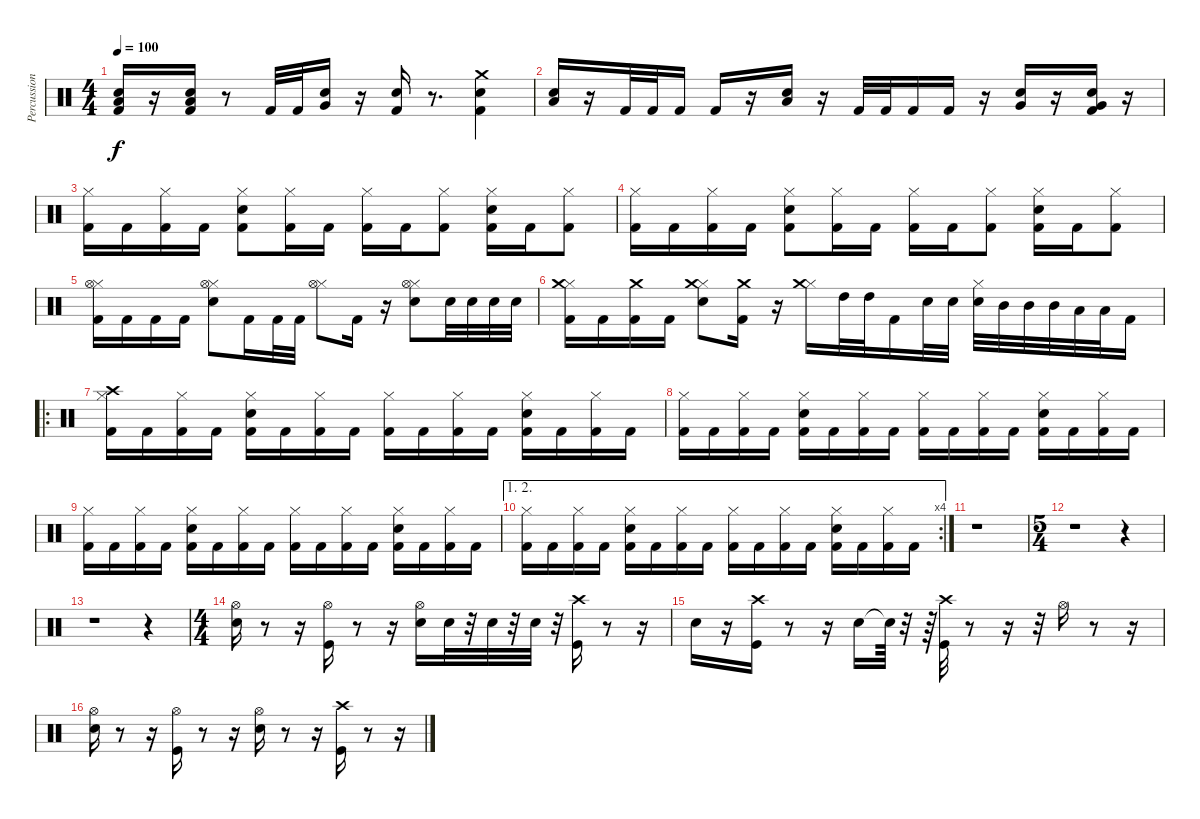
\track ("Percussion" "Percussion") {instrument percussion}
\staff {score}
\articulation defaults
\ts (4 4)
\tempo 100
\clef neutral
\ks c
("Kick (hit) 2" "Snare (hit) 2" "Low Floor Tom (hit)").16{dy f} r.16 ("Kick (hit) 2" "Snare (hit) 2" "Low Floor Tom (hit)").16 r.8 "Kick (hit) 2".32 "Kick (hit) 2".32 ("Snare (hit) 2" "Very Low Tom (hit)").16 r.16 ("Kick (hit) 2" "Snare (hit) 2").16 r.8{d} ("Kick (hit) 2" "Snare (hit) 2" "Crash medium (hit)").4 |
("Snare (hit) 2" "Low Floor Tom (hit)").16 r.16 "Kick (hit) 2".32 "Kick (hit) 2".32 "Kick (hit) 2".16 "Kick (hit) 2".16 r.16 ("Snare (hit) 2" "Low Floor Tom (hit)").16 r.16 "Kick (hit) 2".32 "Kick (hit) 2".32 "Kick (hit) 2".16 "Kick (hit) 2".16 r.16 ("Snare (hit) 2" "Very Low Tom (hit)").16 r.16 ("Kick (hit) 2" "Snare (hit) 2" "Very Low Tom (hit)").16 r.16 |
("Kick (hit) 2" "Hi-Hat (closed)").16 "Kick (hit) 2".16 ("Kick (hit) 2" "Hi-Hat (closed)").16 "Kick (hit) 2".16 ("Kick (hit) 2" "Snare (hit) 2" "Hi-Hat (closed)").8 ("Kick (hit) 2" "Hi-Hat (closed)").16 "Kick (hit) 2".16 ("Kick (hit) 2" "Hi-Hat (closed)").16 "Kick (hit) 2".16 ("Kick (hit) 2" "Hi-Hat (closed)").8 ("Kick (hit) 2" "Snare (hit) 2" "Hi-Hat (closed)").16 "Kick (hit) 2".16 ("Kick (hit) 2" "Hi-Hat (closed)").8 |
("Kick (hit) 2" "Hi-Hat (closed)").16 "Kick (hit) 2".16 ("Kick (hit) 2" "Hi-Hat (closed)").16 "Kick (hit) 2".16 ("Kick (hit) 2" "Snare (hit) 2" "Hi-Hat (closed)").8 ("Kick (hit) 2" "Hi-Hat (closed)").16 "Kick (hit) 2".16 ("Kick (hit) 2" "Hi-Hat (closed)").16 "Kick (hit) 2".16 ("Kick (hit) 2" "Hi-Hat (closed)").8 ("Kick (hit) 2" "Snare (hit) 2" "Hi-Hat (closed)").16 "Kick (hit) 2".16 ("Kick (hit) 2" "Hi-Hat (closed)").8 |
("Kick (hit) 2" "Hi-Hat (closed)" "Hi-Hat (open)").16 "Kick (hit) 2".16 "Kick (hit) 2".16 "Kick (hit) 2".16 ("Snare (hit) 2" "Hi-Hat (closed)" "Hi-Hat (open)").8 "Kick (hit) 2".16 "Kick (hit) 2".32 "Kick (hit) 2".32 ("Hi-Hat (closed)" "Hi-Hat (open)").8 "Kick (hit) 2".16 r.16 ("Snare (hit) 2" "Hi-Hat (closed)" "Hi-Hat (open)").8 "Snare (hit) 2".32 "Snare (hit) 2".32 "Snare (hit) 2".32 "Snare (hit) 2".32 |
("Kick (hit) 2" "Hi-Hat (closed)" "Crash medium (hit)").16 "Kick (hit) 2".16 ("Kick (hit) 2" "Crash medium (hit)").16 "Kick (hit) 2".16 ("Snare (hit) 2" "Hi-Hat (closed)" "Crash medium (hit)").8 ("Kick (hit) 2" "Crash medium (hit)").16 r.16 ("Hi-Hat (closed)" "Crash medium (hit)").16 "High Tom (hit)".32 "High Tom (hit)".32 "Kick (hit) 2".16 "Snare (hit) 2".32 "Snare (hit) 2".32 ("Snare (hit) 2" "Hi-Hat (closed)").32 "Mid Tom (hit)".32 "Mid Tom (hit)".32 "Mid Tom (hit)".32 "Low Tom (hit)".32 "Low Tom (hit)".32 "Kick (hit) 2".16 |
\ro
("Kick (hit) 2" "Hi-Hat (closed)" "Crash high (hit)").16 "Kick (hit) 2".16 ("Kick (hit) 2" "Hi-Hat (closed)").16 "Kick (hit) 2".16 ("Kick (hit) 2" "Snare (hit) 2" "Hi-Hat (closed)").16 "Kick (hit) 2".16 ("Kick (hit) 2" "Hi-Hat (closed)").16 "Kick (hit) 2".16 ("Kick (hit) 2" "Hi-Hat (closed)").16 "Kick (hit) 2".16 ("Kick (hit) 2" "Hi-Hat (closed)").16 "Kick (hit) 2".16 ("Kick (hit) 2" "Snare (hit) 2" "Hi-Hat (closed)").16 "Kick (hit) 2".16 ("Kick (hit) 2" "Hi-Hat (closed)").16 "Kick (hit) 2".16 |
("Kick (hit) 2" "Hi-Hat (closed)").16 "Kick (hit) 2".16 ("Kick (hit) 2" "Hi-Hat (closed)").16 "Kick (hit) 2".16 ("Kick (hit) 2" "Snare (hit) 2" "Hi-Hat (closed)").16 "Kick (hit) 2".16 ("Kick (hit) 2" "Hi-Hat (closed)").16 "Kick (hit) 2".16 ("Kick (hit) 2" "Hi-Hat (closed)").16 "Kick (hit) 2".16 ("Kick (hit) 2" "Hi-Hat (closed)").16 "Kick (hit) 2".16 ("Kick (hit) 2" "Snare (hit) 2" "Hi-Hat (closed)").16 "Kick (hit) 2".16 ("Kick (hit) 2" "Hi-Hat (closed)").16 "Kick (hit) 2".16 |
("Kick (hit) 2" "Hi-Hat (closed)").16 "Kick (hit) 2".16 ("Kick (hit) 2" "Hi-Hat (closed)").16 "Kick (hit) 2".16 ("Kick (hit) 2" "Snare (hit) 2" "Hi-Hat (closed)").16 "Kick (hit) 2".16 ("Kick (hit) 2" "Hi-Hat (closed)").16 "Kick (hit) 2".16 ("Kick (hit) 2" "Hi-Hat (closed)").16 "Kick (hit) 2".16 ("Kick (hit) 2" "Hi-Hat (closed)").16 "Kick (hit) 2".16 ("Kick (hit) 2" "Snare (hit) 2" "Hi-Hat (closed)").16 "Kick (hit) 2".16 ("Kick (hit) 2" "Hi-Hat (closed)").16 "Kick (hit) 2".16 |
\ae (1 2)
\rc 4
("Kick (hit) 2" "Hi-Hat (closed)").16 "Kick (hit) 2".16 ("Kick (hit) 2" "Hi-Hat (closed)").16 "Kick (hit) 2".16 ("Kick (hit) 2" "Snare (hit) 2" "Hi-Hat (closed)").16 "Kick (hit) 2".16 ("Kick (hit) 2" "Hi-Hat (closed)").16 "Kick (hit) 2".16 ("Kick (hit) 2" "Hi-Hat (closed)").16 "Kick (hit) 2".16 ("Kick (hit) 2" "Hi-Hat (closed)").16 "Kick (hit) 2".16 ("Kick (hit) 2" "Snare (hit) 2" "Hi-Hat (closed)").16 "Kick (hit) 2".16 ("Kick (hit) 2" "Hi-Hat (closed)").16 "Kick (hit) 2".16 |
r.1 |
\ts (5 4)
r.1 r.4 |
r.1 r.4 |
\ts (4 4)
("Snare (hit) 2" "Hi-Hat (open)").16 r.8 r.16 ("Kick (hit)" "Hi-Hat (open)").16 r.8 r.16 ("Snare (hit) 2" "Hi-Hat (open)").16 "Snare (hit) 2".32 r.32 "Electric Snare (hit)".32 r.32 "Electric Snare (hit)".32 r.32 ("Crash high (hit)" "Kick (hit)").16 r.8 r.16 |
"Snare (hit) 2".16 r.16 ("Kick (hit)" "Crash high (hit)").16 r.8 r.16 "Snare (hit) 2".16 "Snare (hit)"{t}.64 r.32 r.64 ("Kick (hit)" "Crash high (hit)").32 r.8 r.16 r.32 "Hi-Hat (open)".16 r.8 r.16 |
("Hi-Hat (open)" "Snare (hit) 2").16 r.8 r.16 ("Hi-Hat (open)" "Kick (hit)").16 r.8 r.16 ("Hi-Hat (open)" "Snare (hit) 2").16 r.8 r.16 ("Kick (hit)" "Crash high (hit)").16 r.8 r.16
